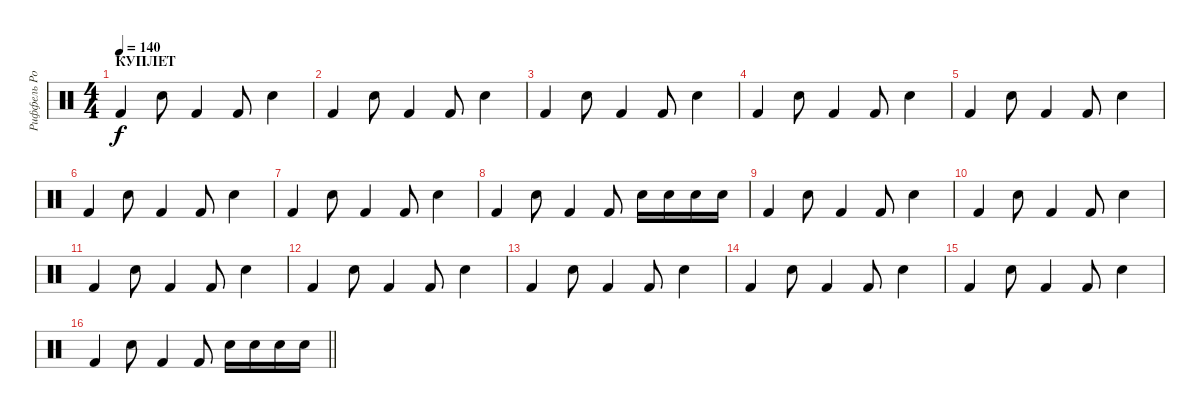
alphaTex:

\track ("Риффель Роман(главные)" "Риффель Ро") {instrument percussion}
\staff {score}
\articulation defaults
\ts (4 4)
\section ("" "КУПЛЕТ")
\tempo 140
\clef neutral
\ks c "Kick (hit) 2".4{dy f} "Electric Snare (hit)".8 "Kick (hit) 2".4 "Kick (hit) 2".8 "Electric Snare (hit)".4
|
"Kick (hit) 2".4 "Electric Snare (hit)".8 "Kick (hit) 2".4 "Kick (hit) 2".8 "Electric Snare (hit)".4 |
"Kick (hit) 2".4 "Electric Snare (hit)".8 "Kick (hit) 2".4 "Kick (hit) 2".8 "Electric Snare (hit)".4 |
"Kick (hit) 2".4 "Electric Snare (hit)".8 "Kick (hit) 2".4 "Kick (hit) 2".8 "Electric Snare (hit)".4 |
"Kick (hit) 2".4 "Electric Snare (hit)".8 "Kick (hit) 2".4 "Kick (hit) 2".8 "Electric Snare (hit)".4 |
"Kick (hit) 2".4 "Electric Snare (hit)".8 "Kick (hit) 2".4 "Kick (hit) 2".8 "Electric Snare (hit)".4 |
"Kick (hit) 2".4 "Electric Snare (hit)".8 "Kick (hit) 2".4 "Kick (hit) 2".8 "Electric Snare (hit)".4 |
"Kick (hit) 2".4 "Electric Snare (hit)".8 "Kick (hit) 2".4 "Kick (hit) 2".8 "Electric Snare (hit)".16 "Electric Snare (hit)".16 "Electric Snare (hit)".16 "Electric Snare (hit)".16 |
"Kick (hit) 2".4 "Electric Snare (hit)".8 "Kick (hit) 2".4 "Kick (hit) 2".8 "Electric Snare (hit)".4 |
"Kick (hit) 2".4 "Electric Snare (hit)".8 "Kick (hit) 2".4 "Kick (hit) 2".8 "Electric Snare (hit)".4 |
"Kick (hit) 2".4 "Electric Snare (hit)".8 "Kick (hit) 2".4 "Kick (hit) 2".8 "Electric Snare (hit)".4 |
"Kick (hit) 2".4 "Electric Snare (hit)".8 "Kick (hit) 2".4 "Kick (hit) 2".8 "Electric Snare (hit)".4 |
"Kick (hit) 2".4 "Electric Snare (hit)".8 "Kick (hit) 2".4 "Kick (hit) 2".8 "Electric Snare (hit)".4 |
"Kick (hit) 2".4 "Electric Snare (hit)".8 "Kick (hit) 2".4 "Kick (hit) 2".8 "Electric Snare (hit)".4 |
"Kick (hit) 2".4 "Electric Snare (hit)".8 "Kick (hit) 2".4 "Kick (hit) 2".8 "Electric Snare (hit)".4 |
\barLineRight lightlight "Kick (hit) 2".4 "Electric Snare (hit)".8 "Kick (hit) 2".4 "Kick (hit) 2".8 "Electric Snare (hit)".16 "Electric Snare (hit)".16 "Electric Snare (hit)".16 "Electric Snare (hit)".16
